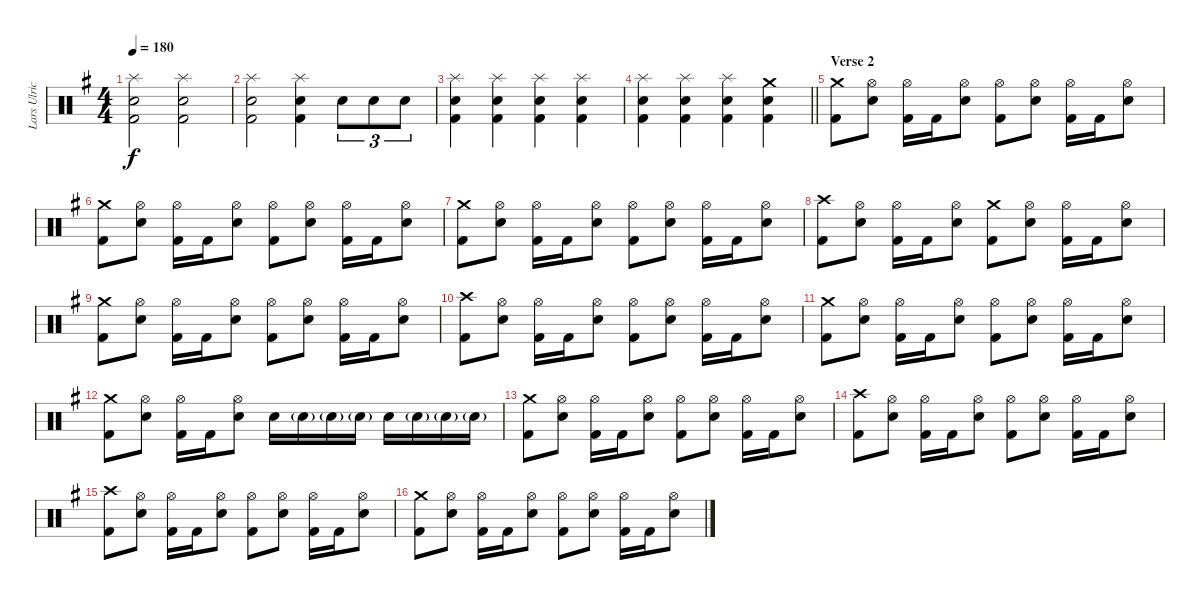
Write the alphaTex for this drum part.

\track ("Lars Ulrich" "Lars Ulric") {instrument percussion}
\staff {score}
\articulation defaults
\ts (4 4)
\tempo 180
\clef neutral
\ks eminor
("Splash (hit)" "Snare (hit) 2" "Kick (hit) 2").2{dy f} ("Splash (hit)" "Snare (hit) 2" "Kick (hit) 2").2 |
("Splash (hit)" "Snare (hit) 2" "Kick (hit) 2").2 ("Splash (hit)" "Snare (hit) 2" "Kick (hit) 2").4 "Snare (hit) 2".8{tu (3 2)} "Snare (hit) 2".8{tu (3 2)} "Snare (hit) 2".8{tu (3 2)} |
("Splash (hit)" "Snare (hit) 2" "Kick (hit) 2").4 ("Splash (hit)" "Snare (hit) 2" "Kick (hit) 2").4 ("Splash (hit)" "Snare (hit) 2" "Kick (hit) 2").4 ("Splash (hit)" "Snare (hit) 2" "Kick (hit) 2").4 |
\barLineRight lightlight
("Splash (hit)" "Snare (hit) 2" "Kick (hit) 2").4 ("Splash (hit)" "Snare (hit) 2" "Kick (hit) 2").4 ("Splash (hit)" "Snare (hit) 2" "Kick (hit) 2").4 ("Crash medium (hit)" "Snare (hit) 2" "Kick (hit) 2").4 |
\section ("" "Verse 2")
("Crash medium (hit)" "Kick (hit) 2").8 ("Hi-Hat (open)" "Snare (hit) 2").8 ("Hi-Hat (open)" "Kick (hit) 2").16 "Kick (hit) 2".16 ("Hi-Hat (open)" "Snare (hit) 2").8 ("Hi-Hat (open)" "Kick (hit) 2").8 ("Hi-Hat (open)" "Snare (hit) 2").8 ("Hi-Hat (open)" "Kick (hit) 2").16 "Kick (hit) 2".16 ("Hi-Hat (open)" "Snare (hit) 2").8 |
("Crash medium (hit)" "Kick (hit) 2").8 ("Hi-Hat (open)" "Snare (hit) 2").8 ("Hi-Hat (open)" "Kick (hit) 2").16 "Kick (hit) 2".16 ("Hi-Hat (open)" "Snare (hit) 2").8 ("Hi-Hat (open)" "Kick (hit) 2").8 ("Hi-Hat (open)" "Snare (hit) 2").8 ("Hi-Hat (open)" "Kick (hit) 2").16 "Kick (hit) 2".16 ("Hi-Hat (open)" "Snare (hit) 2").8 |
("Crash medium (hit)" "Kick (hit) 2").8 ("Hi-Hat (open)" "Snare (hit) 2").8 ("Hi-Hat (open)" "Kick (hit) 2").16 "Kick (hit) 2".16 ("Hi-Hat (open)" "Snare (hit) 2").8 ("Hi-Hat (open)" "Kick (hit) 2").8 ("Hi-Hat (open)" "Snare (hit) 2").8 ("Hi-Hat (open)" "Kick (hit) 2").16 "Kick (hit) 2".16 ("Hi-Hat (open)" "Snare (hit) 2").8 |
("Crash high (hit)" "Kick (hit) 2").8 ("Hi-Hat (open)" "Snare (hit) 2").8 ("Hi-Hat (open)" "Kick (hit) 2").16 "Kick (hit) 2".16 ("Hi-Hat (open)" "Snare (hit) 2").8 ("Crash medium (hit)" "Kick (hit) 2").8 ("Hi-Hat (open)" "Snare (hit) 2").8 ("Hi-Hat (open)" "Kick (hit) 2").16 "Kick (hit) 2".16 ("Hi-Hat (open)" "Snare (hit) 2").8 |
("Crash medium (hit)" "Kick (hit) 2").8 ("Hi-Hat (open)" "Snare (hit) 2").8 ("Hi-Hat (open)" "Kick (hit) 2").16 "Kick (hit) 2".16 ("Hi-Hat (open)" "Snare (hit) 2").8 ("Hi-Hat (open)" "Kick (hit) 2").8 ("Hi-Hat (open)" "Snare (hit) 2").8 ("Hi-Hat (open)" "Kick (hit) 2").16 "Kick (hit) 2".16 ("Hi-Hat (open)" "Snare (hit) 2").8 |
("Crash high (hit)" "Kick (hit) 2").8 ("Hi-Hat (open)" "Snare (hit) 2").8 ("Hi-Hat (open)" "Kick (hit) 2").16 "Kick (hit) 2".16 ("Hi-Hat (open)" "Snare (hit) 2").8 ("Hi-Hat (open)" "Kick (hit) 2").8 ("Hi-Hat (open)" "Snare (hit) 2").8 ("Hi-Hat (open)" "Kick (hit) 2").16 "Kick (hit) 2".16 ("Hi-Hat (open)" "Snare (hit) 2").8 |
("Crash medium (hit)" "Kick (hit) 2").8 ("Hi-Hat (open)" "Snare (hit) 2").8 ("Hi-Hat (open)" "Kick (hit) 2").16 "Kick (hit) 2".16 ("Hi-Hat (open)" "Snare (hit) 2").8 ("Hi-Hat (open)" "Kick (hit) 2").8 ("Hi-Hat (open)" "Snare (hit) 2").8 ("Hi-Hat (open)" "Kick (hit) 2").16 "Kick (hit) 2".16 ("Hi-Hat (open)" "Snare (hit) 2").8 |
("Crash medium (hit)" "Kick (hit) 2").8 ("Hi-Hat (open)" "Snare (hit) 2").8 ("Hi-Hat (open)" "Kick (hit) 2").16 "Kick (hit) 2".16 ("Hi-Hat (open)" "Snare (hit) 2").8 "Snare (hit) 2".16 "Snare (hit) 2"{g}.16 "Snare (hit) 2"{g}.16 "Snare (hit) 2"{g}.16 "Snare (hit) 2".16 "Snare (hit) 2"{g}.16 "Snare (hit) 2"{g}.16 "Snare (hit) 2"{g}.16 |
("Crash medium (hit)" "Kick (hit) 2").8 ("Hi-Hat (open)" "Snare (hit) 2").8 ("Hi-Hat (open)" "Kick (hit) 2").16 "Kick (hit) 2".16 ("Hi-Hat (open)" "Snare (hit) 2").8 ("Hi-Hat (open)" "Kick (hit) 2").8 ("Hi-Hat (open)" "Snare (hit) 2").8 ("Hi-Hat (open)" "Kick (hit) 2").16 "Kick (hit) 2".16 ("Hi-Hat (open)" "Snare (hit) 2").8 |
("Crash high (hit)" "Kick (hit) 2").8 ("Hi-Hat (open)" "Snare (hit) 2").8 ("Hi-Hat (open)" "Kick (hit) 2").16 "Kick (hit) 2".16 ("Hi-Hat (open)" "Snare (hit) 2").8 ("Hi-Hat (open)" "Kick (hit) 2").8 ("Hi-Hat (open)" "Snare (hit) 2").8 ("Hi-Hat (open)" "Kick (hit) 2").16 "Kick (hit) 2".16 ("Hi-Hat (open)" "Snare (hit) 2").8 |
("Crash high (hit)" "Kick (hit) 2").8 ("Hi-Hat (open)" "Snare (hit) 2").8 ("Hi-Hat (open)" "Kick (hit) 2").16 "Kick (hit) 2".16 ("Hi-Hat (open)" "Snare (hit) 2").8 ("Hi-Hat (open)" "Kick (hit) 2").8 ("Hi-Hat (open)" "Snare (hit) 2").8 ("Hi-Hat (open)" "Kick (hit) 2").16 "Kick (hit) 2".16 ("Hi-Hat (open)" "Snare (hit) 2").8 |
("Crash medium (hit)" "Kick (hit) 2").8 ("Hi-Hat (open)" "Snare (hit) 2").8 ("Hi-Hat (open)" "Kick (hit) 2").16 "Kick (hit) 2".16 ("Hi-Hat (open)" "Snare (hit) 2").8 ("Hi-Hat (open)" "Kick (hit) 2").8 ("Hi-Hat (open)" "Snare (hit) 2").8 ("Hi-Hat (open)" "Kick (hit) 2").16 "Kick (hit) 2".16 ("Hi-Hat (open)" "Snare (hit) 2").8
